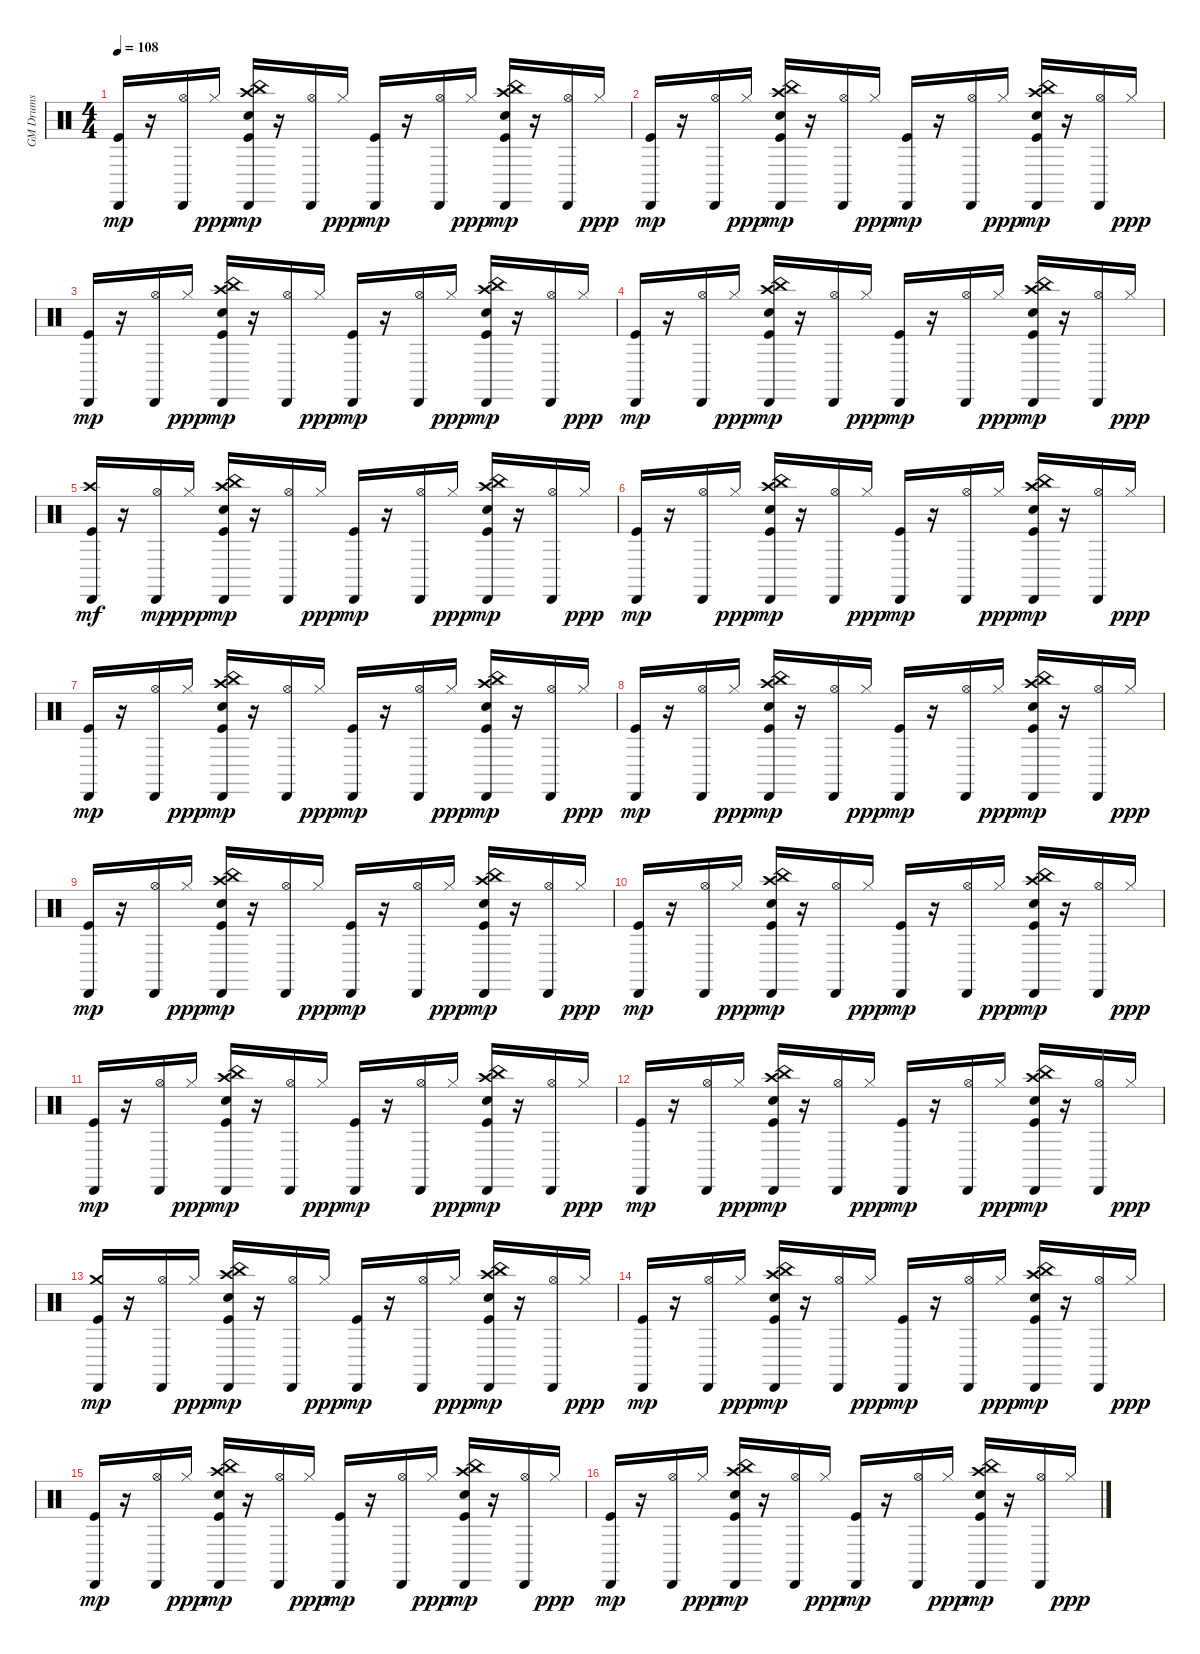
\track ("GM Drums" "GM Drums") {instrument percussion}
\staff {score}
\articulation defaults
\ts (4 4)
\tempo 108
\clef neutral
\ks c
("Kick (hit)" "Cabasa (hit)").16{dy mp} r.16 ("Hi-Hat (open)" "Cabasa (hit)").16 "Hi-Hat (closed)".16{dy ppp} ("Kick (hit)" "Electric Snare (hit)" "Crash high (hit)" "China (hit)" "Cabasa (hit)").16{dy mp} r.16 ("Hi-Hat (open)" "Cabasa (hit)").16 "Hi-Hat (closed)".16{dy ppp} ("Kick (hit)" "Cabasa (hit)").16{dy mp} r.16 ("Hi-Hat (open)" "Cabasa (hit)").16 "Hi-Hat (closed)".16{dy ppp} ("Kick (hit)" "Electric Snare (hit)" "Crash high (hit)" "China (hit)" "Cabasa (hit)").16{dy mp} r.16 ("Hi-Hat (open)" "Cabasa (hit)").16 "Hi-Hat (closed)".16{dy ppp} |
("Kick (hit)" "Cabasa (hit)").16{dy mp} r.16 ("Hi-Hat (open)" "Cabasa (hit)").16 "Hi-Hat (closed)".16{dy ppp} ("Kick (hit)" "Electric Snare (hit)" "Crash high (hit)" "China (hit)" "Cabasa (hit)").16{dy mp} r.16 ("Hi-Hat (open)" "Cabasa (hit)").16 "Hi-Hat (closed)".16{dy ppp} ("Kick (hit)" "Cabasa (hit)").16{dy mp} r.16 ("Hi-Hat (open)" "Cabasa (hit)").16 "Hi-Hat (closed)".16{dy ppp} ("Kick (hit)" "Electric Snare (hit)" "Crash high (hit)" "China (hit)" "Cabasa (hit)").16{dy mp} r.16 ("Hi-Hat (open)" "Cabasa (hit)").16 "Hi-Hat (closed)".16{dy ppp} |
("Kick (hit)" "Cabasa (hit)").16{dy mp} r.16 ("Hi-Hat (open)" "Cabasa (hit)").16 "Hi-Hat (closed)".16{dy ppp} ("Kick (hit)" "Electric Snare (hit)" "Crash high (hit)" "China (hit)" "Cabasa (hit)").16{dy mp} r.16 ("Hi-Hat (open)" "Cabasa (hit)").16 "Hi-Hat (closed)".16{dy ppp} ("Kick (hit)" "Cabasa (hit)").16{dy mp} r.16 ("Hi-Hat (open)" "Cabasa (hit)").16 "Hi-Hat (closed)".16{dy ppp} ("Kick (hit)" "Electric Snare (hit)" "Crash high (hit)" "China (hit)" "Cabasa (hit)").16{dy mp} r.16 ("Hi-Hat (open)" "Cabasa (hit)").16 "Hi-Hat (closed)".16{dy ppp} |
("Kick (hit)" "Cabasa (hit)").16{dy mp} r.16 ("Hi-Hat (open)" "Cabasa (hit)").16 "Hi-Hat (closed)".16{dy ppp} ("Kick (hit)" "Electric Snare (hit)" "Crash high (hit)" "China (hit)" "Cabasa (hit)").16{dy mp} r.16 ("Hi-Hat (open)" "Cabasa (hit)").16 "Hi-Hat (closed)".16{dy ppp} ("Kick (hit)" "Cabasa (hit)").16{dy mp} r.16 ("Hi-Hat (open)" "Cabasa (hit)").16 "Hi-Hat (closed)".16{dy ppp} ("Kick (hit)" "Electric Snare (hit)" "Crash high (hit)" "China (hit)" "Cabasa (hit)").16{dy mp} r.16 ("Hi-Hat (open)" "Cabasa (hit)").16 "Hi-Hat (closed)".16{dy ppp} |
("Kick (hit)" "Cabasa (hit)" "Crash high (hit)").16{dy mf} r.16 ("Hi-Hat (open)" "Cabasa (hit)").16{dy mp} "Hi-Hat (closed)".16{dy ppp} ("Kick (hit)" "Electric Snare (hit)" "Crash high (hit)" "China (hit)" "Cabasa (hit)").16{dy mp} r.16 ("Hi-Hat (open)" "Cabasa (hit)").16 "Hi-Hat (closed)".16{dy ppp} ("Kick (hit)" "Cabasa (hit)").16{dy mp} r.16 ("Hi-Hat (open)" "Cabasa (hit)").16 "Hi-Hat (closed)".16{dy ppp} ("Kick (hit)" "Electric Snare (hit)" "Crash high (hit)" "China (hit)" "Cabasa (hit)").16{dy mp} r.16 ("Hi-Hat (open)" "Cabasa (hit)").16 "Hi-Hat (closed)".16{dy ppp} |
("Kick (hit)" "Cabasa (hit)").16{dy mp} r.16 ("Hi-Hat (open)" "Cabasa (hit)").16 "Hi-Hat (closed)".16{dy ppp} ("Kick (hit)" "Electric Snare (hit)" "Crash high (hit)" "China (hit)" "Cabasa (hit)").16{dy mp} r.16 ("Hi-Hat (open)" "Cabasa (hit)").16 "Hi-Hat (closed)".16{dy ppp} ("Kick (hit)" "Cabasa (hit)").16{dy mp} r.16 ("Hi-Hat (open)" "Cabasa (hit)").16 "Hi-Hat (closed)".16{dy ppp} ("Kick (hit)" "Electric Snare (hit)" "Crash high (hit)" "China (hit)" "Cabasa (hit)").16{dy mp} r.16 ("Hi-Hat (open)" "Cabasa (hit)").16 "Hi-Hat (closed)".16{dy ppp} |
("Kick (hit)" "Cabasa (hit)").16{dy mp} r.16 ("Hi-Hat (open)" "Cabasa (hit)").16 "Hi-Hat (closed)".16{dy ppp} ("Kick (hit)" "Electric Snare (hit)" "Crash high (hit)" "China (hit)" "Cabasa (hit)").16{dy mp} r.16 ("Hi-Hat (open)" "Cabasa (hit)").16 "Hi-Hat (closed)".16{dy ppp} ("Kick (hit)" "Cabasa (hit)").16{dy mp} r.16 ("Hi-Hat (open)" "Cabasa (hit)").16 "Hi-Hat (closed)".16{dy ppp} ("Kick (hit)" "Electric Snare (hit)" "Crash high (hit)" "China (hit)" "Cabasa (hit)").16{dy mp} r.16 ("Hi-Hat (open)" "Cabasa (hit)").16 "Hi-Hat (closed)".16{dy ppp} |
("Kick (hit)" "Cabasa (hit)").16{dy mp} r.16 ("Hi-Hat (open)" "Cabasa (hit)").16 "Hi-Hat (closed)".16{dy ppp} ("Kick (hit)" "Electric Snare (hit)" "Crash high (hit)" "China (hit)" "Cabasa (hit)").16{dy mp} r.16 ("Hi-Hat (open)" "Cabasa (hit)").16 "Hi-Hat (closed)".16{dy ppp} ("Kick (hit)" "Cabasa (hit)").16{dy mp} r.16 ("Hi-Hat (open)" "Cabasa (hit)").16 "Hi-Hat (closed)".16{dy ppp} ("Kick (hit)" "Electric Snare (hit)" "Crash high (hit)" "China (hit)" "Cabasa (hit)").16{dy mp} r.16 ("Hi-Hat (open)" "Cabasa (hit)").16 "Hi-Hat (closed)".16{dy ppp} |
("Kick (hit)" "Cabasa (hit)").16{dy mp} r.16 ("Hi-Hat (open)" "Cabasa (hit)").16 "Hi-Hat (closed)".16{dy ppp} ("Kick (hit)" "Electric Snare (hit)" "Crash high (hit)" "China (hit)" "Cabasa (hit)").16{dy mp} r.16 ("Hi-Hat (open)" "Cabasa (hit)").16 "Hi-Hat (closed)".16{dy ppp} ("Kick (hit)" "Cabasa (hit)").16{dy mp} r.16 ("Hi-Hat (open)" "Cabasa (hit)").16 "Hi-Hat (closed)".16{dy ppp} ("Kick (hit)" "Electric Snare (hit)" "Crash high (hit)" "China (hit)" "Cabasa (hit)").16{dy mp} r.16 ("Hi-Hat (open)" "Cabasa (hit)").16 "Hi-Hat (closed)".16{dy ppp} |
("Kick (hit)" "Cabasa (hit)").16{dy mp} r.16 ("Hi-Hat (open)" "Cabasa (hit)").16 "Hi-Hat (closed)".16{dy ppp} ("Kick (hit)" "Electric Snare (hit)" "Crash high (hit)" "China (hit)" "Cabasa (hit)").16{dy mp} r.16 ("Hi-Hat (open)" "Cabasa (hit)").16 "Hi-Hat (closed)".16{dy ppp} ("Kick (hit)" "Cabasa (hit)").16{dy mp} r.16 ("Hi-Hat (open)" "Cabasa (hit)").16 "Hi-Hat (closed)".16{dy ppp} ("Kick (hit)" "Electric Snare (hit)" "Crash high (hit)" "China (hit)" "Cabasa (hit)").16{dy mp} r.16 ("Hi-Hat (open)" "Cabasa (hit)").16 "Hi-Hat (closed)".16{dy ppp} |
("Kick (hit)" "Cabasa (hit)").16{dy mp} r.16 ("Hi-Hat (open)" "Cabasa (hit)").16 "Hi-Hat (closed)".16{dy ppp} ("Kick (hit)" "Electric Snare (hit)" "Crash high (hit)" "China (hit)" "Cabasa (hit)").16{dy mp} r.16 ("Hi-Hat (open)" "Cabasa (hit)").16 "Hi-Hat (closed)".16{dy ppp} ("Kick (hit)" "Cabasa (hit)").16{dy mp} r.16 ("Hi-Hat (open)" "Cabasa (hit)").16 "Hi-Hat (closed)".16{dy ppp} ("Kick (hit)" "Electric Snare (hit)" "Crash high (hit)" "China (hit)" "Cabasa (hit)").16{dy mp} r.16 ("Hi-Hat (open)" "Cabasa (hit)").16 "Hi-Hat (closed)".16{dy ppp} |
("Kick (hit)" "Cabasa (hit)").16{dy mp} r.16 ("Hi-Hat (open)" "Cabasa (hit)").16 "Hi-Hat (closed)".16{dy ppp} ("Kick (hit)" "Electric Snare (hit)" "Crash high (hit)" "China (hit)" "Cabasa (hit)").16{dy mp} r.16 ("Hi-Hat (open)" "Cabasa (hit)").16 "Hi-Hat (closed)".16{dy ppp} ("Kick (hit)" "Cabasa (hit)").16{dy mp} r.16 ("Hi-Hat (open)" "Cabasa (hit)").16 "Hi-Hat (closed)".16{dy ppp} ("Kick (hit)" "Electric Snare (hit)" "Crash high (hit)" "China (hit)" "Cabasa (hit)").16{dy mp} r.16 ("Hi-Hat (open)" "Cabasa (hit)").16 "Hi-Hat (closed)".16{dy ppp} |
("Kick (hit)" "Crash medium (hit)" "Cabasa (hit)").16{dy mp} r.16 ("Hi-Hat (open)" "Cabasa (hit)").16 "Hi-Hat (closed)".16{dy ppp} ("Kick (hit)" "Electric Snare (hit)" "Crash high (hit)" "China (hit)" "Cabasa (hit)").16{dy mp} r.16 ("Hi-Hat (open)" "Cabasa (hit)").16 "Hi-Hat (closed)".16{dy ppp} ("Kick (hit)" "Cabasa (hit)").16{dy mp} r.16 ("Hi-Hat (open)" "Cabasa (hit)").16 "Hi-Hat (closed)".16{dy ppp} ("Kick (hit)" "Electric Snare (hit)" "Crash high (hit)" "China (hit)" "Cabasa (hit)").16{dy mp} r.16 ("Hi-Hat (open)" "Cabasa (hit)").16 "Hi-Hat (closed)".16{dy ppp} |
("Kick (hit)" "Cabasa (hit)").16{dy mp} r.16 ("Hi-Hat (open)" "Cabasa (hit)").16 "Hi-Hat (closed)".16{dy ppp} ("Kick (hit)" "Electric Snare (hit)" "Crash high (hit)" "China (hit)" "Cabasa (hit)").16{dy mp} r.16 ("Hi-Hat (open)" "Cabasa (hit)").16 "Hi-Hat (closed)".16{dy ppp} ("Kick (hit)" "Cabasa (hit)").16{dy mp} r.16 ("Hi-Hat (open)" "Cabasa (hit)").16 "Hi-Hat (closed)".16{dy ppp} ("Kick (hit)" "Electric Snare (hit)" "Crash high (hit)" "China (hit)" "Cabasa (hit)").16{dy mp} r.16 ("Hi-Hat (open)" "Cabasa (hit)").16 "Hi-Hat (closed)".16{dy ppp} |
("Kick (hit)" "Cabasa (hit)").16{dy mp} r.16 ("Hi-Hat (open)" "Cabasa (hit)").16 "Hi-Hat (closed)".16{dy ppp} ("Kick (hit)" "Electric Snare (hit)" "Crash high (hit)" "China (hit)" "Cabasa (hit)").16{dy mp} r.16 ("Hi-Hat (open)" "Cabasa (hit)").16 "Hi-Hat (closed)".16{dy ppp} ("Kick (hit)" "Cabasa (hit)").16{dy mp} r.16 ("Hi-Hat (open)" "Cabasa (hit)").16 "Hi-Hat (closed)".16{dy ppp} ("Kick (hit)" "Electric Snare (hit)" "Crash high (hit)" "China (hit)" "Cabasa (hit)").16{dy mp} r.16 ("Hi-Hat (open)" "Cabasa (hit)").16 "Hi-Hat (closed)".16{dy ppp} |
("Kick (hit)" "Cabasa (hit)").16{dy mp} r.16 ("Hi-Hat (open)" "Cabasa (hit)").16 "Hi-Hat (closed)".16{dy ppp} ("Kick (hit)" "Electric Snare (hit)" "Crash high (hit)" "China (hit)" "Cabasa (hit)").16{dy mp} r.16 ("Hi-Hat (open)" "Cabasa (hit)").16 "Hi-Hat (closed)".16{dy ppp} ("Kick (hit)" "Cabasa (hit)").16{dy mp} r.16 ("Hi-Hat (open)" "Cabasa (hit)").16 "Hi-Hat (closed)".16{dy ppp} ("Kick (hit)" "Electric Snare (hit)" "Crash high (hit)" "China (hit)" "Cabasa (hit)").16{dy mp} r.16 ("Hi-Hat (open)" "Cabasa (hit)").16 "Hi-Hat (closed)".16{dy ppp}
